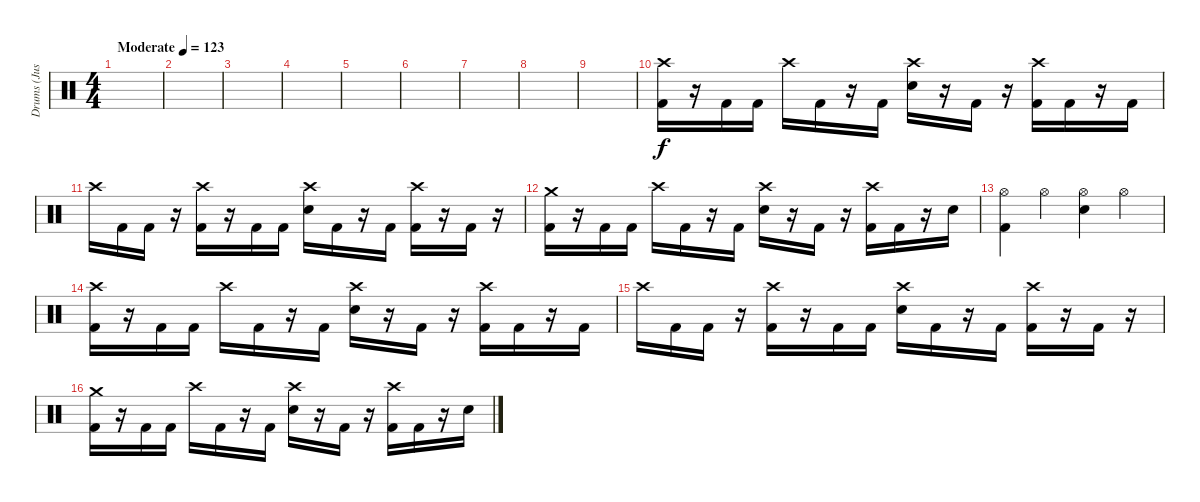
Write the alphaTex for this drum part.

\track ("Drums (Justin)" "Drums (Jus") {instrument percussion}
\staff {score}
\articulation defaults
\ts (4 4)
\tempo (123 "Moderate")
\clef neutral
\ks c
|
|
|
|
|
|
|
|
|
("Crash high (hit)" "Kick (hit) 2").16 r.16 "Kick (hit) 2".16 "Kick (hit) 2".16 "Crash high (hit)".16 "Kick (hit) 2".16 r.16 "Kick (hit) 2".16 ("Electric Snare (hit)" "Crash high (hit)").16 r.16 "Kick (hit) 2".16 r.16 ("Crash high (hit)" "Kick (hit) 2").16 "Kick (hit) 2".16 r.16 "Kick (hit) 2".16 |
"Crash high (hit)".16 "Kick (hit) 2".16 "Kick (hit) 2".16 r.16 ("Crash high (hit)" "Kick (hit) 2").16 r.16 "Kick (hit) 2".16 "Kick (hit) 2".16 ("Electric Snare (hit)" "Crash high (hit)").16 "Kick (hit) 2".16 r.16 "Kick (hit) 2".16 ("Crash high (hit)" "Kick (hit) 2").16 r.16 "Kick (hit) 2".16 r.16 |
("Crash medium (hit)" "Kick (hit) 2").16 r.16 "Kick (hit) 2".16 "Kick (hit) 2".16 "Crash high (hit)".16 "Kick (hit) 2".16 r.16 "Kick (hit) 2".16 ("Electric Snare (hit)" "Crash high (hit)").16 r.16 "Kick (hit) 2".16 r.16 ("Crash high (hit)" "Kick (hit) 2").16 "Kick (hit) 2".16 r.16 "Electric Snare (hit)".16 |
("Hi-Hat (open)" "Kick (hit) 2").4 "Hi-Hat (open)".4 ("Electric Snare (hit)" "Hi-Hat (open)").4 "Hi-Hat (open)".4 |
("Crash high (hit)" "Kick (hit) 2").16 r.16 "Kick (hit) 2".16 "Kick (hit) 2".16 "Crash high (hit)".16 "Kick (hit) 2".16 r.16 "Kick (hit) 2".16 ("Electric Snare (hit)" "Crash high (hit)").16 r.16 "Kick (hit) 2".16 r.16 ("Crash high (hit)" "Kick (hit) 2").16 "Kick (hit) 2".16 r.16 "Kick (hit) 2".16 |
"Crash high (hit)".16 "Kick (hit) 2".16 "Kick (hit) 2".16 r.16 ("Crash high (hit)" "Kick (hit) 2").16 r.16 "Kick (hit) 2".16 "Kick (hit) 2".16 ("Electric Snare (hit)" "Crash high (hit)").16 "Kick (hit) 2".16 r.16 "Kick (hit) 2".16 ("Crash high (hit)" "Kick (hit) 2").16 r.16 "Kick (hit) 2".16 r.16 |
("Crash medium (hit)" "Kick (hit) 2").16 r.16 "Kick (hit) 2".16 "Kick (hit) 2".16 "Crash high (hit)".16 "Kick (hit) 2".16 r.16 "Kick (hit) 2".16 ("Electric Snare (hit)" "Crash high (hit)").16 r.16 "Kick (hit) 2".16 r.16 ("Crash high (hit)" "Kick (hit) 2").16 "Kick (hit) 2".16 r.16 "Electric Snare (hit)".16
